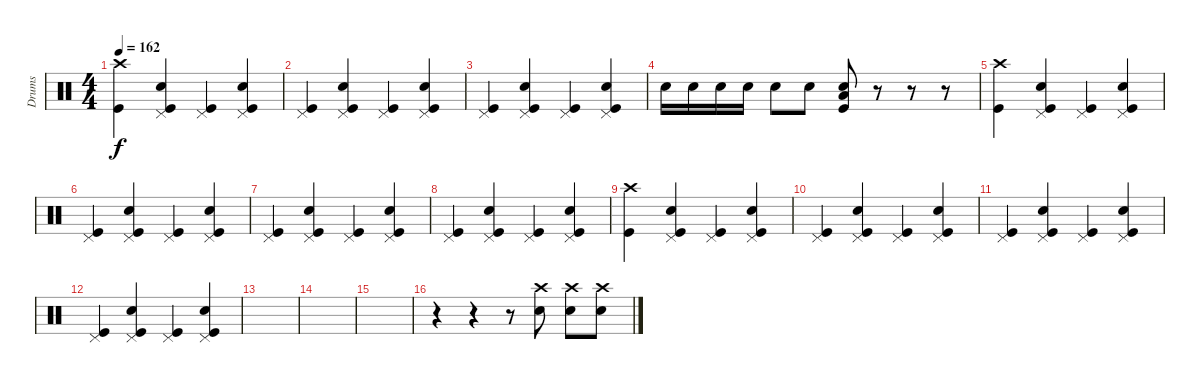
\track ("Drums" "Drums") {instrument percussion}
\staff {score}
\articulation defaults
\ts (4 4)
\tempo 162
\clef neutral
\ks c
("Kick (hit)" "Crash high (hit)").4{dy f} ("Kick (hit)" "Snare (hit) 2" "Pedal Hi-Hat (hit)").4 ("Kick (hit)" "Pedal Hi-Hat (hit)").4 ("Kick (hit)" "Snare (hit) 2" "Pedal Hi-Hat (hit)").4 |
("Kick (hit)" "Pedal Hi-Hat (hit)").4 ("Kick (hit)" "Snare (hit) 2" "Pedal Hi-Hat (hit)").4 ("Kick (hit)" "Pedal Hi-Hat (hit)").4 ("Kick (hit)" "Snare (hit) 2" "Pedal Hi-Hat (hit)").4 |
("Kick (hit)" "Pedal Hi-Hat (hit)").4 ("Kick (hit)" "Snare (hit) 2" "Pedal Hi-Hat (hit)").4 ("Kick (hit)" "Pedal Hi-Hat (hit)").4 ("Kick (hit)" "Snare (hit) 2" "Pedal Hi-Hat (hit)").4 |
"Snare (hit) 2".16 "Snare (hit) 2".16 "Snare (hit) 2".16 "Snare (hit) 2".16 "Snare (hit) 2".8 "Snare (hit) 2".8 ("Kick (hit)" "Snare (hit) 2" "Low Tom (hit)").8 r.8 r.8 r.8 |
("Kick (hit)" "Crash high (hit)").4 ("Kick (hit)" "Snare (hit) 2" "Pedal Hi-Hat (hit)").4 ("Kick (hit)" "Pedal Hi-Hat (hit)").4 ("Kick (hit)" "Snare (hit) 2" "Pedal Hi-Hat (hit)").4 |
("Kick (hit)" "Pedal Hi-Hat (hit)").4 ("Kick (hit)" "Snare (hit) 2" "Pedal Hi-Hat (hit)").4 ("Kick (hit)" "Pedal Hi-Hat (hit)").4 ("Kick (hit)" "Snare (hit) 2" "Pedal Hi-Hat (hit)").4 |
("Kick (hit)" "Pedal Hi-Hat (hit)").4 ("Kick (hit)" "Snare (hit) 2" "Pedal Hi-Hat (hit)").4 ("Kick (hit)" "Pedal Hi-Hat (hit)").4 ("Kick (hit)" "Snare (hit) 2" "Pedal Hi-Hat (hit)").4 |
("Kick (hit)" "Pedal Hi-Hat (hit)").4 ("Kick (hit)" "Snare (hit) 2" "Pedal Hi-Hat (hit)").4 ("Kick (hit)" "Pedal Hi-Hat (hit)").4 ("Kick (hit)" "Snare (hit) 2" "Pedal Hi-Hat (hit)").4 |
("Kick (hit)" "Crash high (hit)").4 ("Kick (hit)" "Snare (hit) 2" "Pedal Hi-Hat (hit)").4 ("Kick (hit)" "Pedal Hi-Hat (hit)").4 ("Kick (hit)" "Snare (hit) 2" "Pedal Hi-Hat (hit)").4 |
("Kick (hit)" "Pedal Hi-Hat (hit)").4 ("Kick (hit)" "Snare (hit) 2" "Pedal Hi-Hat (hit)").4 ("Kick (hit)" "Pedal Hi-Hat (hit)").4 ("Kick (hit)" "Snare (hit) 2" "Pedal Hi-Hat (hit)").4 |
("Kick (hit)" "Pedal Hi-Hat (hit)").4 ("Kick (hit)" "Snare (hit) 2" "Pedal Hi-Hat (hit)").4 ("Kick (hit)" "Pedal Hi-Hat (hit)").4 ("Kick (hit)" "Snare (hit) 2" "Pedal Hi-Hat (hit)").4 |
("Kick (hit)" "Pedal Hi-Hat (hit)").4 ("Kick (hit)" "Snare (hit) 2" "Pedal Hi-Hat (hit)").4 ("Kick (hit)" "Pedal Hi-Hat (hit)").4 ("Kick (hit)" "Snare (hit) 2" "Pedal Hi-Hat (hit)").4 |
|
|
|
r.4 r.4 r.8 ("Snare (hit) 2" "Crash high (hit)").8 ("Snare (hit) 2" "Crash high (hit)").8 ("Snare (hit) 2" "Crash high (hit)").8
